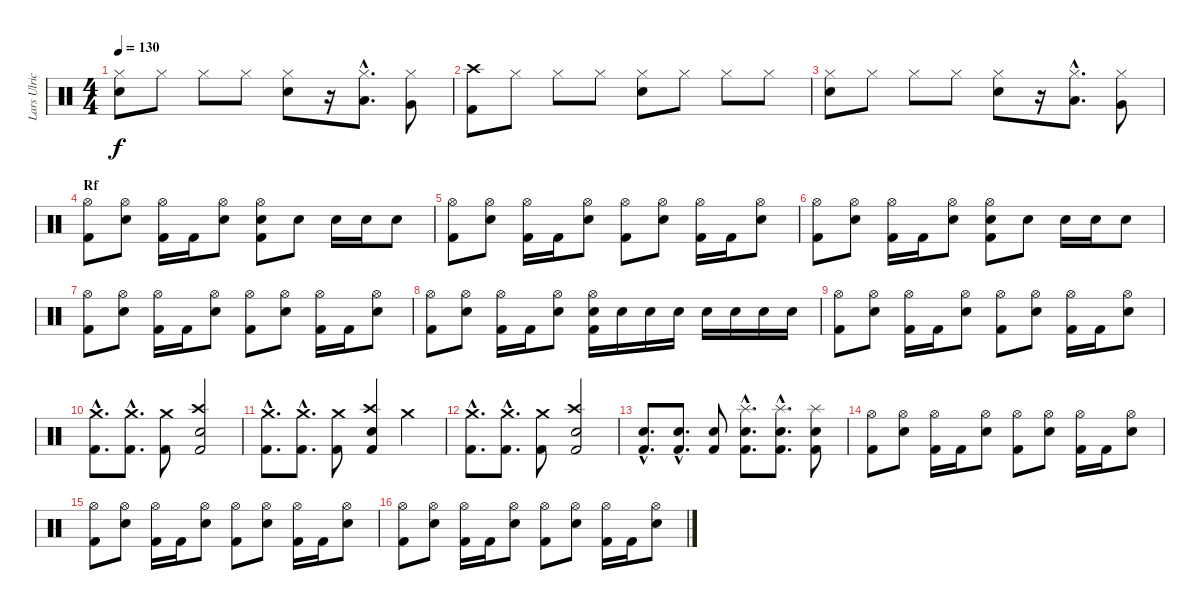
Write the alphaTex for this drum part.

\track ("Lars Ulrich" "Lars Ulric") {instrument percussion}
\staff {score}
\articulation defaults
\ts (4 4)
\tempo 130
\clef neutral
\ks c
("Hi-Hat (closed)" "Electric Snare (hit)").8{dy f} "Hi-Hat (closed)".8 "Hi-Hat (closed)".8 "Hi-Hat (closed)".8 ("Hi-Hat (closed)" "Electric Snare (hit)").8 r.16 ("Hi-Hat (closed)"{hac} "Low Tom (hit)"{hac}).8{d} ("Hi-Hat (closed)" "Very Low Tom (hit)").8 |
("Crash high (hit)" "Kick (hit) 2").8 "Hi-Hat (closed)".8 "Hi-Hat (closed)".8 "Hi-Hat (closed)".8 ("Hi-Hat (closed)" "Electric Snare (hit)").8 "Hi-Hat (closed)".8 "Hi-Hat (closed)".8 "Hi-Hat (closed)".8 |
("Hi-Hat (closed)" "Electric Snare (hit)").8 "Hi-Hat (closed)".8 "Hi-Hat (closed)".8 "Hi-Hat (closed)".8 ("Hi-Hat (closed)" "Electric Snare (hit)").8 r.16 ("Hi-Hat (closed)"{hac} "Low Tom (hit)"{hac}).8{d} ("Hi-Hat (closed)" "Very Low Tom (hit)").8 |
\section ("" "Rf")
("Hi-Hat (open)" "Kick (hit) 2").8 ("Hi-Hat (open)" "Electric Snare (hit)").8 ("Hi-Hat (open)" "Kick (hit) 2").16 "Kick (hit) 2".16 ("Hi-Hat (open)" "Electric Snare (hit)").8 ("Hi-Hat (open)" "Electric Snare (hit)" "Kick (hit) 2").8 "Electric Snare (hit)".8 "Electric Snare (hit)".16 "Electric Snare (hit)".16 "Electric Snare (hit)".8 |
("Hi-Hat (open)" "Kick (hit) 2").8 ("Hi-Hat (open)" "Electric Snare (hit)").8 ("Hi-Hat (open)" "Kick (hit) 2").16 "Kick (hit) 2".16 ("Hi-Hat (open)" "Electric Snare (hit)").8 ("Hi-Hat (open)" "Kick (hit) 2").8 ("Hi-Hat (open)" "Electric Snare (hit)").8 ("Hi-Hat (open)" "Kick (hit) 2").16 "Kick (hit) 2".16 ("Hi-Hat (open)" "Electric Snare (hit)").8 |
("Hi-Hat (open)" "Kick (hit) 2").8 ("Hi-Hat (open)" "Electric Snare (hit)").8 ("Hi-Hat (open)" "Kick (hit) 2").16 "Kick (hit) 2".16 ("Hi-Hat (open)" "Electric Snare (hit)").8 ("Hi-Hat (open)" "Electric Snare (hit)" "Kick (hit) 2").8 "Electric Snare (hit)".8 "Electric Snare (hit)".16 "Electric Snare (hit)".16 "Electric Snare (hit)".8 |
("Hi-Hat (open)" "Kick (hit) 2").8 ("Hi-Hat (open)" "Electric Snare (hit)").8 ("Hi-Hat (open)" "Kick (hit) 2").16 "Kick (hit) 2".16 ("Hi-Hat (open)" "Electric Snare (hit)").8 ("Hi-Hat (open)" "Kick (hit) 2").8 ("Hi-Hat (open)" "Electric Snare (hit)").8 ("Hi-Hat (open)" "Kick (hit) 2").16 "Kick (hit) 2".16 ("Hi-Hat (open)" "Electric Snare (hit)").8 |
("Hi-Hat (open)" "Kick (hit) 2").8 ("Hi-Hat (open)" "Electric Snare (hit)").8 ("Hi-Hat (open)" "Kick (hit) 2").16 "Kick (hit) 2".16 ("Hi-Hat (open)" "Electric Snare (hit)").8 ("Hi-Hat (open)" "Electric Snare (hit)" "Kick (hit) 2").16 "Electric Snare (hit)".16 "Electric Snare (hit)".16 "Electric Snare (hit)".16 "Electric Snare (hit)".16 "Electric Snare (hit)".16 "Electric Snare (hit)".16 "Electric Snare (hit)".16 |
("Hi-Hat (open)" "Kick (hit) 2").8 ("Hi-Hat (open)" "Electric Snare (hit)").8 ("Hi-Hat (open)" "Kick (hit) 2").16 "Kick (hit) 2".16 ("Hi-Hat (open)" "Electric Snare (hit)").8 ("Hi-Hat (open)" "Kick (hit) 2").8 ("Hi-Hat (open)" "Electric Snare (hit)").8 ("Hi-Hat (open)" "Kick (hit) 2").16 "Kick (hit) 2".16 ("Hi-Hat (open)" "Electric Snare (hit)").8 |
("Crash medium (hit)"{hac} "Kick (hit) 2"{hac}).8{d} ("Crash medium (hit)"{hac} "Kick (hit) 2"{hac}).8{d} ("Crash medium (hit)" "Kick (hit) 2").8 ("Crash high (hit)" "Electric Snare (hit)" "Kick (hit) 2").2 |
("Crash medium (hit)"{hac} "Kick (hit) 2"{hac}).8{d} ("Crash medium (hit)"{hac} "Kick (hit) 2"{hac}).8{d} ("Crash medium (hit)" "Kick (hit) 2").8 ("Crash high (hit)" "Electric Snare (hit)" "Kick (hit) 2").4 "Crash medium (hit)".4 |
("Crash medium (hit)"{hac} "Kick (hit) 2"{hac}).8{d} ("Crash medium (hit)"{hac} "Kick (hit) 2"{hac}).8{d} ("Crash medium (hit)" "Kick (hit) 2").8 ("Crash high (hit)" "Electric Snare (hit)" "Kick (hit) 2").2 |
("Electric Snare (hit)"{hac} "Kick (hit) 2"{hac}).8{d} ("Electric Snare (hit)"{hac} "Kick (hit) 2"{hac}).8{d} ("Electric Snare (hit)" "Kick (hit) 2").8 ("Splash (hit)"{hac} "Electric Snare (hit)"{hac} "Kick (hit) 2"{hac}).8{d} ("Splash (hit)"{hac} "Electric Snare (hit)"{hac} "Kick (hit) 2"{hac}).8{d} ("Splash (hit)" "Electric Snare (hit)" "Kick (hit) 2").8 |
("Hi-Hat (open)" "Kick (hit) 2").8 ("Hi-Hat (open)" "Electric Snare (hit)").8 ("Hi-Hat (open)" "Kick (hit) 2").16 "Kick (hit) 2".16 ("Hi-Hat (open)" "Electric Snare (hit)").8 ("Hi-Hat (open)" "Kick (hit) 2").8 ("Hi-Hat (open)" "Electric Snare (hit)").8 ("Hi-Hat (open)" "Kick (hit) 2").16 "Kick (hit) 2".16 ("Hi-Hat (open)" "Electric Snare (hit)").8 |
("Hi-Hat (open)" "Kick (hit) 2").8 ("Hi-Hat (open)" "Electric Snare (hit)").8 ("Hi-Hat (open)" "Kick (hit) 2").16 "Kick (hit) 2".16 ("Hi-Hat (open)" "Electric Snare (hit)").8 ("Hi-Hat (open)" "Kick (hit) 2").8 ("Hi-Hat (open)" "Electric Snare (hit)").8 ("Hi-Hat (open)" "Kick (hit) 2").16 "Kick (hit) 2".16 ("Hi-Hat (open)" "Electric Snare (hit)").8 |
("Hi-Hat (open)" "Kick (hit) 2").8 ("Hi-Hat (open)" "Electric Snare (hit)").8 ("Hi-Hat (open)" "Kick (hit) 2").16 "Kick (hit) 2".16 ("Hi-Hat (open)" "Electric Snare (hit)").8 ("Hi-Hat (open)" "Kick (hit) 2").8 ("Hi-Hat (open)" "Electric Snare (hit)").8 ("Hi-Hat (open)" "Kick (hit) 2").16 "Kick (hit) 2".16 ("Hi-Hat (open)" "Electric Snare (hit)").8
